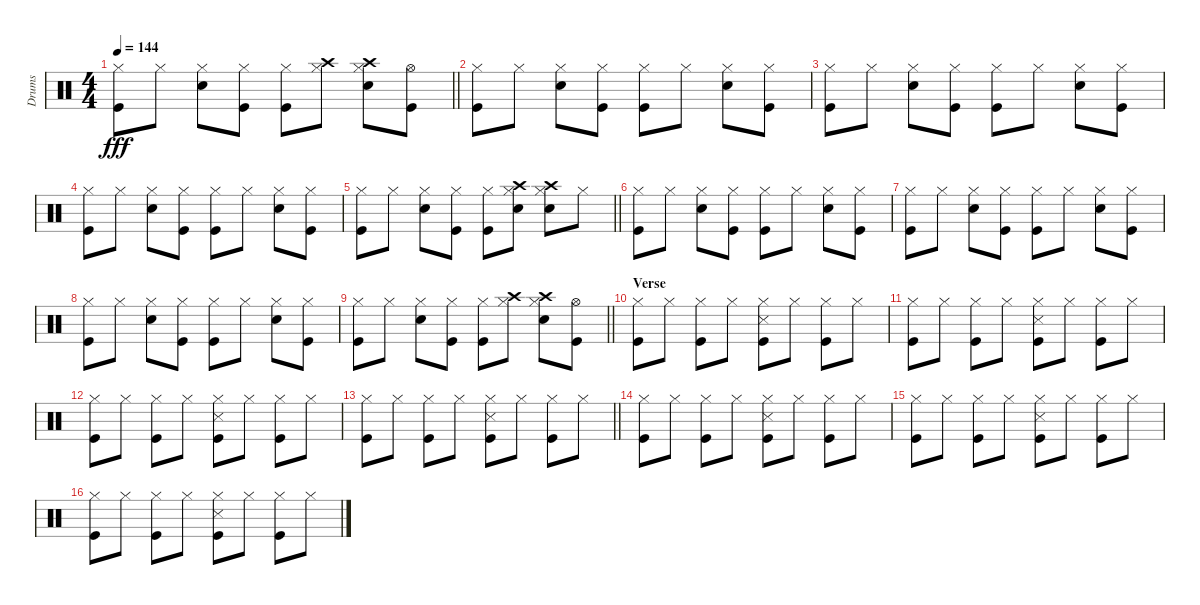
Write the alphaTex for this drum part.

\track ("Drums" "Drums") {instrument percussion}
\staff {score}
\articulation defaults
\ts (4 4)
\tempo 144
\clef neutral
\barLineRight lightlight
\ks c
("Kick (hit)" "Hi-Hat (closed)").8{dy fff} "Hi-Hat (closed)".8 ("Snare (hit) 2" "Hi-Hat (closed)").8 ("Kick (hit)" "Hi-Hat (closed)").8 ("Hi-Hat (closed)" "Kick (hit)").8 ("Crash high (hit)" "Hi-Hat (closed)").8 ("Crash high (hit)" "Snare (hit) 2" "Hi-Hat (closed)").8 ("Hi-Hat (open)" "Kick (hit)").8 |
("Hi-Hat (closed)" "Kick (hit)").8 "Hi-Hat (closed)".8 ("Snare (hit) 2" "Hi-Hat (closed)").8 ("Kick (hit)" "Hi-Hat (closed)").8 ("Kick (hit)" "Hi-Hat (closed)").8 "Hi-Hat (closed)".8 ("Snare (hit) 2" "Hi-Hat (closed)").8 ("Hi-Hat (closed)" "Kick (hit)").8 |
("Hi-Hat (closed)" "Kick (hit)").8 "Hi-Hat (closed)".8 ("Snare (hit) 2" "Hi-Hat (closed)").8 ("Kick (hit)" "Hi-Hat (closed)").8 ("Kick (hit)" "Hi-Hat (closed)").8 "Hi-Hat (closed)".8 ("Snare (hit) 2" "Hi-Hat (closed)").8 ("Hi-Hat (closed)" "Kick (hit)").8 |
("Hi-Hat (closed)" "Kick (hit)").8 "Hi-Hat (closed)".8 ("Snare (hit) 2" "Hi-Hat (closed)").8 ("Kick (hit)" "Hi-Hat (closed)").8 ("Hi-Hat (closed)" "Kick (hit)").8 "Hi-Hat (closed)".8 ("Snare (hit) 2" "Hi-Hat (closed)").8 ("Hi-Hat (closed)" "Kick (hit)").8 |
\barLineRight lightlight
("Hi-Hat (closed)" "Kick (hit)").8 "Hi-Hat (closed)".8 ("Snare (hit) 2" "Hi-Hat (closed)").8 ("Kick (hit)" "Hi-Hat (closed)").8 ("Kick (hit)" "Hi-Hat (closed)").8 ("Hi-Hat (closed)" "Crash high (hit)" "Snare (hit) 2").8 ("Hi-Hat (closed)" "Crash high (hit)" "Snare (hit) 2").8 "Hi-Hat (closed)".8 |
("Hi-Hat (closed)" "Kick (hit)").8 "Hi-Hat (closed)".8 ("Snare (hit) 2" "Hi-Hat (closed)").8 ("Kick (hit)" "Hi-Hat (closed)").8 ("Kick (hit)" "Hi-Hat (closed)").8 "Hi-Hat (closed)".8 ("Snare (hit) 2" "Hi-Hat (closed)").8 ("Hi-Hat (closed)" "Kick (hit)").8 |
("Hi-Hat (closed)" "Kick (hit)").8 "Hi-Hat (closed)".8 ("Snare (hit) 2" "Hi-Hat (closed)").8 ("Kick (hit)" "Hi-Hat (closed)").8 ("Kick (hit)" "Hi-Hat (closed)").8 "Hi-Hat (closed)".8 ("Snare (hit) 2" "Hi-Hat (closed)").8 ("Hi-Hat (closed)" "Kick (hit)").8 |
("Hi-Hat (closed)" "Kick (hit)").8 "Hi-Hat (closed)".8 ("Snare (hit) 2" "Hi-Hat (closed)").8 ("Kick (hit)" "Hi-Hat (closed)").8 ("Hi-Hat (closed)" "Kick (hit)").8 "Hi-Hat (closed)".8 ("Snare (hit) 2" "Hi-Hat (closed)").8 ("Hi-Hat (closed)" "Kick (hit)").8 |
\barLineRight lightlight
("Kick (hit)" "Hi-Hat (closed)").8 "Hi-Hat (closed)".8 ("Snare (hit) 2" "Hi-Hat (closed)").8 ("Kick (hit)" "Hi-Hat (closed)").8 ("Hi-Hat (closed)" "Kick (hit)").8 ("Crash high (hit)" "Hi-Hat (closed)").8 ("Crash high (hit)" "Snare (hit) 2" "Hi-Hat (closed)").8 ("Hi-Hat (open)" "Kick (hit)").8 |
\section ("" "Verse")
("Hi-Hat (closed)" "Kick (hit)").8 "Hi-Hat (closed)".8 ("Hi-Hat (closed)" "Kick (hit)").8 "Hi-Hat (closed)".8 ("Hi-Hat (closed)" "Kick (hit)" "Snare (side stick) 3").8 "Hi-Hat (closed)".8 ("Hi-Hat (closed)" "Kick (hit)").8 "Hi-Hat (closed)".8 |
("Hi-Hat (closed)" "Kick (hit)").8 "Hi-Hat (closed)".8 ("Hi-Hat (closed)" "Kick (hit)").8 "Hi-Hat (closed)".8 ("Kick (hit)" "Hi-Hat (closed)" "Snare (side stick) 3").8 "Hi-Hat (closed)".8 ("Hi-Hat (closed)" "Kick (hit)").8 "Hi-Hat (closed)".8 |
("Hi-Hat (closed)" "Kick (hit)").8 "Hi-Hat (closed)".8 ("Hi-Hat (closed)" "Kick (hit)").8 "Hi-Hat (closed)".8 ("Hi-Hat (closed)" "Kick (hit)" "Snare (side stick) 3").8 "Hi-Hat (closed)".8 ("Hi-Hat (closed)" "Kick (hit)").8 "Hi-Hat (closed)".8 |
\barLineRight lightlight
("Hi-Hat (closed)" "Kick (hit)").8 "Hi-Hat (closed)".8 ("Hi-Hat (closed)" "Kick (hit)").8 "Hi-Hat (closed)".8 ("Hi-Hat (closed)" "Kick (hit)" "Snare (side stick) 3").8 "Hi-Hat (closed)".8 ("Hi-Hat (closed)" "Kick (hit)").8 "Hi-Hat (closed)".8 |
("Hi-Hat (closed)" "Kick (hit)").8 "Hi-Hat (closed)".8 ("Hi-Hat (closed)" "Kick (hit)").8 "Hi-Hat (closed)".8 ("Hi-Hat (closed)" "Kick (hit)" "Snare (side stick) 3").8 "Hi-Hat (closed)".8 ("Hi-Hat (closed)" "Kick (hit)").8 "Hi-Hat (closed)".8 |
("Hi-Hat (closed)" "Kick (hit)").8 "Hi-Hat (closed)".8 ("Hi-Hat (closed)" "Kick (hit)").8 "Hi-Hat (closed)".8 ("Kick (hit)" "Hi-Hat (closed)" "Snare (side stick) 3").8 "Hi-Hat (closed)".8 ("Hi-Hat (closed)" "Kick (hit)").8 "Hi-Hat (closed)".8 |
("Hi-Hat (closed)" "Kick (hit)").8 "Hi-Hat (closed)".8 ("Hi-Hat (closed)" "Kick (hit)").8 "Hi-Hat (closed)".8 ("Hi-Hat (closed)" "Kick (hit)" "Snare (side stick) 3").8 "Hi-Hat (closed)".8 ("Hi-Hat (closed)" "Kick (hit)").8 "Hi-Hat (closed)".8
